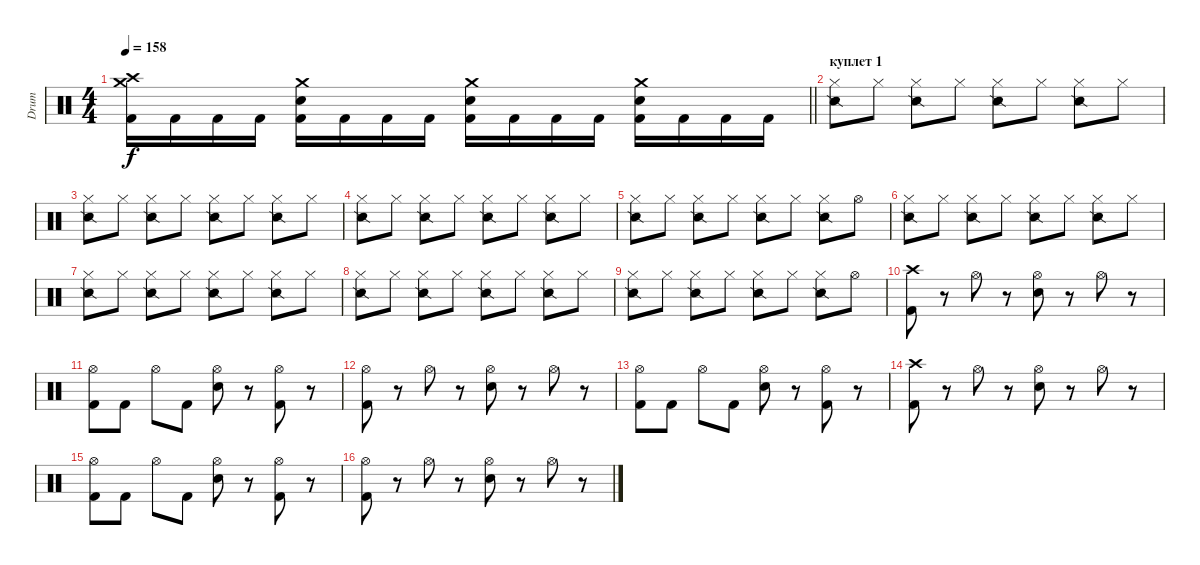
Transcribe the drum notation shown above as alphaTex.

\track ("Drum" "Drum") {instrument percussion}
\staff {score}
\articulation defaults
\ts (4 4)
\tempo 158
\clef neutral
\barLineRight lightlight
\ks c
("Crash high (hit)" "Crash medium (hit)" "Kick (hit) 2").16{dy f} "Kick (hit) 2".16 "Kick (hit) 2".16 "Kick (hit) 2".16 ("Crash medium (hit)" "Snare (hit) 2" "Kick (hit) 2").16 "Kick (hit) 2".16 "Kick (hit) 2".16 "Kick (hit) 2".16 ("Crash medium (hit)" "Snare (hit) 2" "Kick (hit) 2").16 "Kick (hit) 2".16 "Kick (hit) 2".16 "Kick (hit) 2".16 ("Crash medium (hit)" "Snare (hit) 2" "Kick (hit) 2").16 "Kick (hit) 2".16 "Kick (hit) 2".16 "Kick (hit) 2".16 |
\section ("" "куплет 1")
("Hi-Hat (closed)" "Snare (side stick) 2").8 "Hi-Hat (closed)".8 ("Hi-Hat (closed)" "Snare (side stick) 2").8 "Hi-Hat (closed)".8 ("Hi-Hat (closed)" "Snare (side stick) 2").8 "Hi-Hat (closed)".8 ("Hi-Hat (closed)" "Snare (side stick) 2").8 "Hi-Hat (closed)".8 |
("Hi-Hat (closed)" "Snare (side stick) 2").8 "Hi-Hat (closed)".8 ("Hi-Hat (closed)" "Snare (side stick) 2").8 "Hi-Hat (closed)".8 ("Hi-Hat (closed)" "Snare (side stick) 2").8 "Hi-Hat (closed)".8 ("Hi-Hat (closed)" "Snare (side stick) 2").8 "Hi-Hat (closed)".8 |
("Hi-Hat (closed)" "Snare (side stick) 2").8 "Hi-Hat (closed)".8 ("Hi-Hat (closed)" "Snare (side stick) 2").8 "Hi-Hat (closed)".8 ("Hi-Hat (closed)" "Snare (side stick) 2").8 "Hi-Hat (closed)".8 ("Hi-Hat (closed)" "Snare (side stick) 2").8 "Hi-Hat (closed)".8 |
("Hi-Hat (closed)" "Snare (side stick) 2").8 "Hi-Hat (closed)".8 ("Hi-Hat (closed)" "Snare (side stick) 2").8 "Hi-Hat (closed)".8 ("Hi-Hat (closed)" "Snare (side stick) 2").8 "Hi-Hat (closed)".8 ("Hi-Hat (closed)" "Snare (side stick) 2").8 "Hi-Hat (open)".8 |
("Hi-Hat (closed)" "Snare (side stick) 2").8 "Hi-Hat (closed)".8 ("Hi-Hat (closed)" "Snare (side stick) 2").8 "Hi-Hat (closed)".8 ("Hi-Hat (closed)" "Snare (side stick) 2").8 "Hi-Hat (closed)".8 ("Hi-Hat (closed)" "Snare (side stick) 2").8 "Hi-Hat (closed)".8 |
("Hi-Hat (closed)" "Snare (side stick) 2").8 "Hi-Hat (closed)".8 ("Hi-Hat (closed)" "Snare (side stick) 2").8 "Hi-Hat (closed)".8 ("Hi-Hat (closed)" "Snare (side stick) 2").8 "Hi-Hat (closed)".8 ("Hi-Hat (closed)" "Snare (side stick) 2").8 "Hi-Hat (closed)".8 |
("Hi-Hat (closed)" "Snare (side stick) 2").8 "Hi-Hat (closed)".8 ("Hi-Hat (closed)" "Snare (side stick) 2").8 "Hi-Hat (closed)".8 ("Hi-Hat (closed)" "Snare (side stick) 2").8 "Hi-Hat (closed)".8 ("Hi-Hat (closed)" "Snare (side stick) 2").8 "Hi-Hat (closed)".8 |
("Hi-Hat (closed)" "Snare (side stick) 2").8 "Hi-Hat (closed)".8 ("Hi-Hat (closed)" "Snare (side stick) 2").8 "Hi-Hat (closed)".8 ("Hi-Hat (closed)" "Snare (side stick) 2").8 "Hi-Hat (closed)".8 ("Hi-Hat (closed)" "Snare (side stick) 2").8 "Hi-Hat (open)".8 |
("Crash high (hit)" "Kick (hit) 2").8 r.8 "Hi-Hat (open)".8 r.8 ("Hi-Hat (open)" "Snare (hit) 2").8 r.8 "Hi-Hat (open)".8 r.8 |
("Hi-Hat (open)" "Kick (hit) 2").8 "Kick (hit) 2".8 "Hi-Hat (open)".8 "Kick (hit) 2".8 ("Hi-Hat (open)" "Snare (hit) 2").8 r.8 ("Hi-Hat (open)" "Kick (hit) 2").8 r.8 |
("Hi-Hat (open)" "Kick (hit) 2").8 r.8 "Hi-Hat (open)".8 r.8 ("Hi-Hat (open)" "Snare (hit) 2").8 r.8 "Hi-Hat (open)".8 r.8 |
("Hi-Hat (open)" "Kick (hit) 2").8 "Kick (hit) 2".8 "Hi-Hat (open)".8 "Kick (hit) 2".8 ("Hi-Hat (open)" "Snare (hit) 2").8 r.8 ("Hi-Hat (open)" "Kick (hit) 2").8 r.8 |
("Crash high (hit)" "Kick (hit) 2").8 r.8 "Hi-Hat (open)".8 r.8 ("Hi-Hat (open)" "Snare (hit) 2").8 r.8 "Hi-Hat (open)".8 r.8 |
("Hi-Hat (open)" "Kick (hit) 2").8 "Kick (hit) 2".8 "Hi-Hat (open)".8 "Kick (hit) 2".8 ("Hi-Hat (open)" "Snare (hit) 2").8 r.8 ("Hi-Hat (open)" "Kick (hit) 2").8 r.8 |
("Hi-Hat (open)" "Kick (hit) 2").8 r.8 "Hi-Hat (open)".8 r.8 ("Hi-Hat (open)" "Snare (hit) 2").8 r.8 "Hi-Hat (open)".8 r.8
